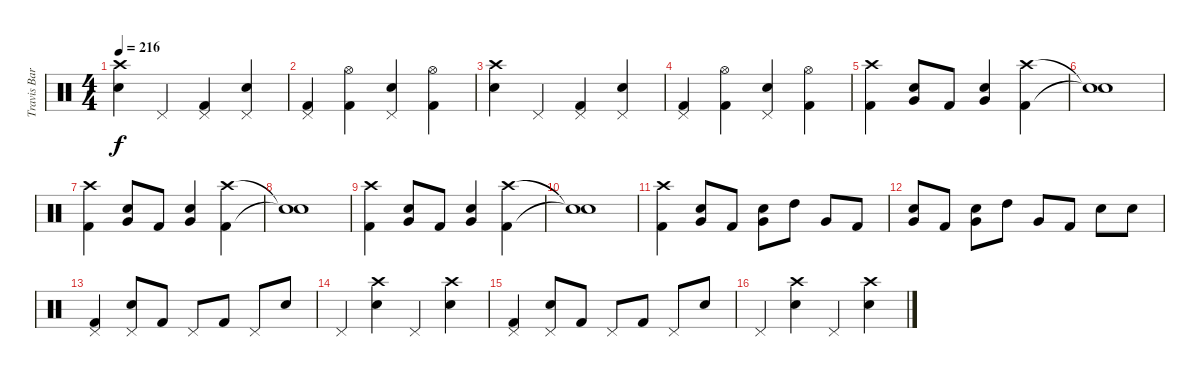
\track ("Travis Barker (Drums)" "Travis Bar") {instrument percussion}
\staff {score}
\articulation defaults
\ts (4 4)
\tempo 216
\clef neutral
\ks c
("Crash high (hit)" "Electric Snare (hit)").4{dy f} "Pedal Hi-Hat (hit)".4 ("Pedal Hi-Hat (hit)" "Kick (hit) 2").4 ("Pedal Hi-Hat (hit)" "Electric Snare (hit)").4 |
("Pedal Hi-Hat (hit)" "Kick (hit) 2").4 ("Hi-Hat (open)" "Kick (hit) 2").4 ("Pedal Hi-Hat (hit)" "Electric Snare (hit)").4 ("Hi-Hat (open)" "Kick (hit) 2").4 |
("Crash high (hit)" "Electric Snare (hit)").4 "Pedal Hi-Hat (hit)".4 ("Pedal Hi-Hat (hit)" "Kick (hit) 2").4 ("Pedal Hi-Hat (hit)" "Electric Snare (hit)").4 |
("Pedal Hi-Hat (hit)" "Kick (hit) 2").4 ("Hi-Hat (open)" "Kick (hit) 2").4 ("Pedal Hi-Hat (hit)" "Electric Snare (hit)").4 ("Hi-Hat (open)" "Kick (hit) 2").4 |
("Crash high (hit)" "Kick (hit) 2").4 ("Very Low Tom (hit)" "Electric Snare (hit)").8 "Kick (hit) 2".8 ("Very Low Tom (hit)" "Electric Snare (hit)").4 ("Crash high (hit)" "Kick (hit) 2").4 |
("Snare (hit)"{t} "Snare (hit)"{t}).1 |
("Crash high (hit)" "Kick (hit) 2").4 ("Very Low Tom (hit)" "Electric Snare (hit)").8 "Kick (hit) 2".8 ("Very Low Tom (hit)" "Electric Snare (hit)").4 ("Crash high (hit)" "Kick (hit) 2").4 |
("Snare (hit)"{t} "Snare (hit)"{t}).1 |
("Crash high (hit)" "Kick (hit) 2").4 ("Very Low Tom (hit)" "Electric Snare (hit)").8 "Kick (hit) 2".8 ("Very Low Tom (hit)" "Electric Snare (hit)").4 ("Crash high (hit)" "Kick (hit) 2").4 |
("Snare (hit)"{t} "Snare (hit)"{t}).1 |
("Crash high (hit)" "Kick (hit) 2").4 ("Very Low Tom (hit)" "Electric Snare (hit)").8 "Kick (hit) 2".8 ("Very Low Tom (hit)" "Electric Snare (hit)").8 "High Tom (hit)".8 "Very Low Tom (hit)".8 "Kick (hit) 2".8 |
("Very Low Tom (hit)" "Electric Snare (hit)").8 "Kick (hit) 2".8 ("Very Low Tom (hit)" "Electric Snare (hit)").8 "High Tom (hit)".8 "Very Low Tom (hit)".8 "Kick (hit) 2".8 "Electric Snare (hit)".8 "Electric Snare (hit)".8 |
("Pedal Hi-Hat (hit)" "Kick (hit) 2").4 ("Pedal Hi-Hat (hit)" "Electric Snare (hit)").8 "Kick (hit) 2".8 "Pedal Hi-Hat (hit)".8 "Kick (hit) 2".8 "Pedal Hi-Hat (hit)".8 "Electric Snare (hit)".8 |
"Pedal Hi-Hat (hit)".4 ("Crash high (hit)" "Electric Snare (hit)").4 "Pedal Hi-Hat (hit)".4 ("Crash high (hit)" "Electric Snare (hit)").4 |
("Pedal Hi-Hat (hit)" "Kick (hit) 2").4 ("Pedal Hi-Hat (hit)" "Electric Snare (hit)").8 "Kick (hit) 2".8 "Pedal Hi-Hat (hit)".8 "Kick (hit) 2".8 "Pedal Hi-Hat (hit)".8 "Electric Snare (hit)".8 |
"Pedal Hi-Hat (hit)".4 ("Crash high (hit)" "Electric Snare (hit)").4 "Pedal Hi-Hat (hit)".4 ("Crash high (hit)" "Electric Snare (hit)").4
